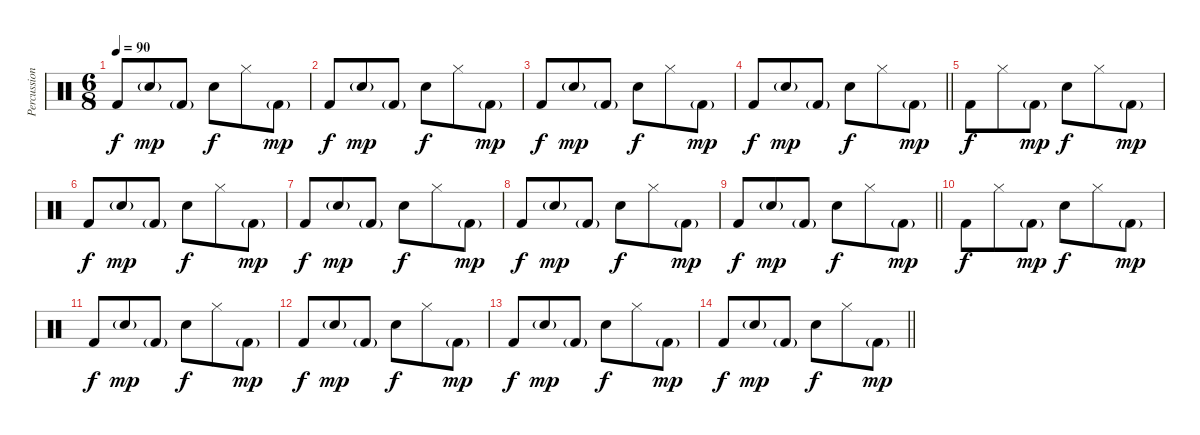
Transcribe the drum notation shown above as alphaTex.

\track ("Percussion" "Percussion") {instrument percussion}
\staff {score}
\articulation defaults
\ts (6 8)
\tempo 90
\clef neutral
\ks c "Kick (hit) 2".8{dy f} "Snare (hit) 2"{g}.8{dy mp} "Kick (hit) 2"{g}.8 "Snare (hit) 2".8{dy f} "Hi-Hat (closed)".8 "Kick (hit) 2"{g}.8{dy mp}
|
"Kick (hit) 2".8{dy f} "Snare (hit) 2"{g}.8{dy mp} "Kick (hit) 2"{g}.8 "Snare (hit) 2".8{dy f} "Hi-Hat (closed)".8 "Kick (hit) 2"{g}.8{dy mp} |
"Kick (hit) 2".8{dy f} "Snare (hit) 2"{g}.8{dy mp} "Kick (hit) 2"{g}.8 "Snare (hit) 2".8{dy f} "Hi-Hat (closed)".8 "Kick (hit) 2"{g}.8{dy mp} |
\barLineRight lightlight "Kick (hit) 2".8{dy f} "Snare (hit) 2"{g}.8{dy mp} "Kick (hit) 2"{g}.8 "Snare (hit) 2".8{dy f} "Hi-Hat (closed)".8 "Kick (hit) 2"{g}.8{dy mp}
|
"Kick (hit) 2".8{dy f} "Hi-Hat (closed)".8 "Kick (hit) 2"{g}.8{dy mp} "Snare (hit) 2".8{dy f} "Hi-Hat (closed)".8 "Kick (hit) 2"{g}.8{dy mp} |
"Kick (hit) 2".8{dy f} "Snare (hit) 2"{g}.8{dy mp} "Kick (hit) 2"{g}.8 "Snare (hit) 2".8{dy f} "Hi-Hat (closed)".8 "Kick (hit) 2"{g}.8{dy mp} |
"Kick (hit) 2".8{dy f} "Snare (hit) 2"{g}.8{dy mp} "Kick (hit) 2"{g}.8 "Snare (hit) 2".8{dy f} "Hi-Hat (closed)".8 "Kick (hit) 2"{g}.8{dy mp} |
"Kick (hit) 2".8{dy f} "Snare (hit) 2"{g}.8{dy mp} "Kick (hit) 2"{g}.8 "Snare (hit) 2".8{dy f} "Hi-Hat (closed)".8 "Kick (hit) 2"{g}.8{dy mp} |
\barLineRight lightlight "Kick (hit) 2".8{dy f} "Snare (hit) 2"{g}.8{dy mp} "Kick (hit) 2"{g}.8 "Snare (hit) 2".8{dy f} "Hi-Hat (closed)".8 "Kick (hit) 2"{g}.8{dy mp}
|
"Kick (hit) 2".8{dy f} "Hi-Hat (closed)".8 "Kick (hit) 2"{g}.8{dy mp} "Snare (hit) 2".8{dy f} "Hi-Hat (closed)".8 "Kick (hit) 2"{g}.8{dy mp} |
"Kick (hit) 2".8{dy f} "Snare (hit) 2"{g}.8{dy mp} "Kick (hit) 2"{g}.8 "Snare (hit) 2".8{dy f} "Hi-Hat (closed)".8 "Kick (hit) 2"{g}.8{dy mp} |
"Kick (hit) 2".8{dy f} "Snare (hit) 2"{g}.8{dy mp} "Kick (hit) 2"{g}.8 "Snare (hit) 2".8{dy f} "Hi-Hat (closed)".8 "Kick (hit) 2"{g}.8{dy mp} |
"Kick (hit) 2".8{dy f} "Snare (hit) 2"{g}.8{dy mp} "Kick (hit) 2"{g}.8 "Snare (hit) 2".8{dy f} "Hi-Hat (closed)".8 "Kick (hit) 2"{g}.8{dy mp} |
\barLineRight lightlight "Kick (hit) 2".8{dy f} "Snare (hit) 2"{g}.8{dy mp} "Kick (hit) 2"{g}.8 "Snare (hit) 2".8{dy f} "Hi-Hat (closed)".8 "Kick (hit) 2"{g}.8{dy mp}
